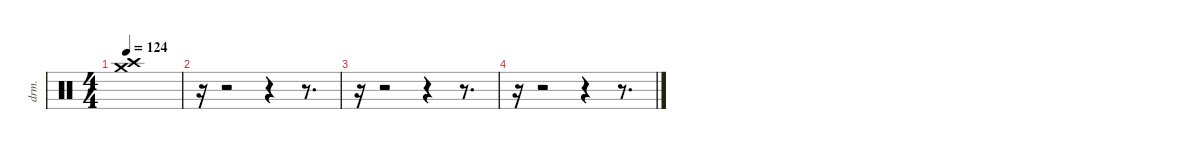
\defaultSystemsLayout 4
\hideDynamics
\bracketExtendMode nobrackets
\otherSystemsTrackNameOrientation horizontal
\track ("Percussion" "drm.") {instrument percussion}
\staff {score}
\articulation defaults
\ts (4 4)
\tempo 124
\clef neutral
\ks c
("Crash medium (hit)" "Crash high (hit)").1{dy f beam Down} |
r.16{beam Down} r.2{beam Down} r.4{beam Down} r.8{d beam Down} |
r.16{beam Down} r.2{beam Down} r.4{beam Down} r.8{d beam Down} |
r.16{beam Down} r.2{beam Down} r.4{beam Down} r.8{d beam Down}
